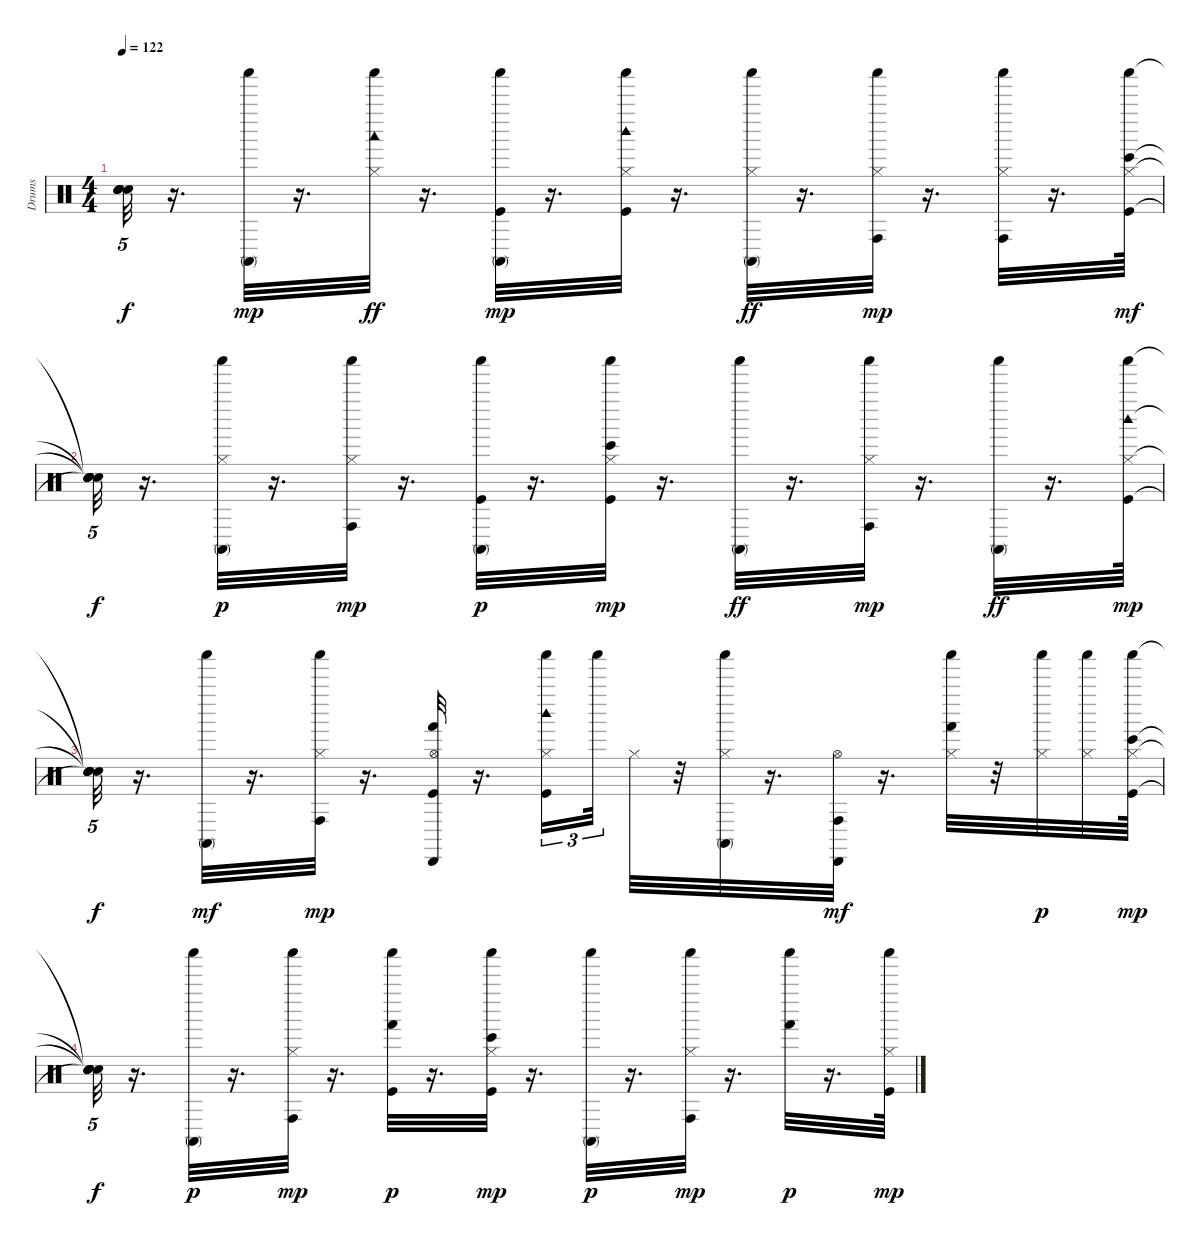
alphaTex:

\track ("Drums" "Drums") {instrument percussion}
\staff {score}
\articulation defaults
\ts (4 4)
\tempo 122
\clef neutral
\ks c
("Snare (hit)"{t} "Snare (hit)"{t} "Snare (hit)"{t} "Snare (hit)"{t}).32{tu (5 4) dy f} r.16{d} ("Shaker (hit)" "Conga high (mute)").32{dy mp} r.16{d} ("Shaker (hit)" "Hi-Hat (closed)" "Woodblock low (hit)").32{dy ff} r.16{d} ("Shaker (hit)" "Kick (hit)" "Conga high (mute)").32{dy mp} r.16{d} ("Kick (hit)" "Hi-Hat (closed)" "Shaker (hit)" "Woodblock high (hit)").32 r.16{d} ("Shaker (hit)" "Hi-Hat (closed)" "Conga high (mute)").32{dy ff} r.16{d} ("Conga high (hit)" "Hi-Hat (closed)" "Shaker (hit)").32{dy mp} r.16{d} ("Shaker (hit)" "Hi-Hat (closed)" "Conga high (hit)").32 r.16{d} ("Bongo High (hit)" "Kick (hit)" "Hi-Hat (closed)" "Shaker (hit)").64{dy mf} |
("Snare (hit)"{t} "Snare (hit)"{t} "Snare (hit)"{t} "Snare (hit)"{t}).32{tu (5 4) dy f} r.16{d} ("Hi-Hat (closed)" "Conga high (mute)" "Shaker (hit)").32{dy p} r.16{d} ("Conga high (hit)" "Shaker (hit)" "Hi-Hat (closed)").32{dy mp} r.16{d} ("Shaker (hit)" "Kick (hit)" "Conga high (mute)").32{dy p} r.16{d} ("Bongo High (hit)" "Shaker (hit)" "Kick (hit)" "Hi-Hat (closed)").32{dy mp} r.16{d} ("Shaker (hit)" "Conga high (mute)").32{dy ff} r.16{d} ("Hi-Hat (closed)" "Conga high (hit)" "Shaker (hit)").32{dy mp} r.16{d} ("Shaker (hit)" "Conga high (mute)").32{dy ff} r.16{d} ("Shaker (hit)" "Kick (hit)" "Hi-Hat (closed)" "Woodblock high (hit)").64{dy mp} |
("Snare (hit)"{t} "Snare (hit)"{t} "Snare (hit)"{t} "Snare (hit)"{t}).32{tu (5 4) dy f} r.16{d} ("Conga high (mute)" "Shaker (hit)").32{dy mf} r.16{d} ("Conga high (hit)" "Shaker (hit)" "Hi-Hat (closed)").32{dy mp} r.16{d} ("Hand (hit)" "Kick (hit)" "Hi-Hat (open)" "Cabasa (hit)").32 r.16{d} ("Woodblock high (hit)" "Kick (hit)" "Hi-Hat (closed)" "Shaker (hit)").16{tu (3 2)} "Shaker (hit)".32{tu (3 2)} "Hi-Hat (closed)".32 r.32 ("Shaker (hit)" "Hi-Hat (closed)" "Conga high (mute)").32 r.16{d} ("Conga high (hit)" "Hi-Hat (open)" "Cabasa (hit)").32{dy mf} r.16{d} ("Hand (hit)" "Shaker (hit)" "Hi-Hat (closed)").32 r.32 ("Hi-Hat (closed)" "Shaker (hit)").32{dy p} ("Hi-Hat (closed)" "Shaker (hit)").32 ("Kick (hit)" "Hi-Hat (closed)" "Bongo High (hit)" "Shaker (hit)").64{dy mp} |
("Snare (hit)"{t} "Snare (hit)"{t} "Snare (hit)"{t} "Snare (hit)"{t}).32{tu (5 4) dy f} r.16{d} ("Conga high (mute)" "Shaker (hit)").32{dy p} r.16{d} ("Hi-Hat (closed)" "Conga high (hit)" "Shaker (hit)").32{dy mp} r.16{d} ("Kick (hit)" "Hand (hit)" "Shaker (hit)").32{dy p} r.16{d} ("Kick (hit)" "Hi-Hat (closed)" "Bongo High (hit)" "Shaker (hit)").32{dy mp} r.16{d} ("Conga high (mute)" "Shaker (hit)").32{dy p} r.16{d} ("Hi-Hat (closed)" "Conga high (hit)" "Shaker (hit)").32{dy mp} r.16{d} ("Hand (hit)" "Shaker (hit)").32{dy p} r.16{d} ("Kick (hit)" "Hi-Hat (closed)" "Shaker (hit)").64{dy mp}
